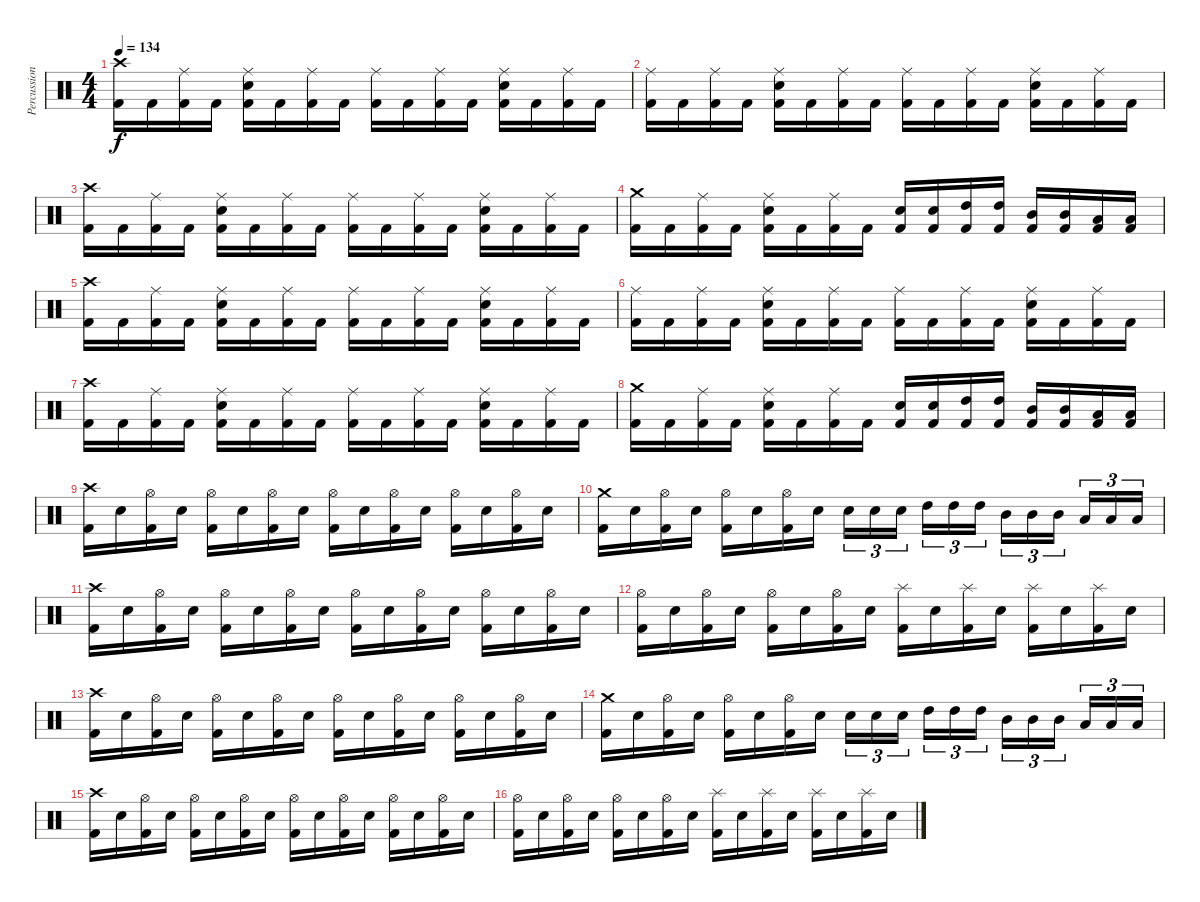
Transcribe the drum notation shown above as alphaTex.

\track ("Percussion" "Percussion") {instrument percussion}
\staff {score}
\articulation defaults
\ts (4 4)
\tempo 134
\clef neutral
\ks c
("Crash high (hit)" "Kick (hit) 2").16{dy f} "Kick (hit) 2".16 ("Ride (middle)" "Kick (hit) 2").16 "Kick (hit) 2".16 ("Ride (middle)" "Snare (hit) 2" "Kick (hit) 2").16 "Kick (hit) 2".16 ("Ride (middle)" "Kick (hit) 2").16 "Kick (hit) 2".16 ("Ride (middle)" "Kick (hit) 2").16 "Kick (hit) 2".16 ("Ride (middle)" "Kick (hit) 2").16 "Kick (hit) 2".16 ("Ride (middle)" "Snare (hit) 2" "Kick (hit) 2").16 "Kick (hit) 2".16 ("Ride (middle)" "Kick (hit) 2").16 "Kick (hit) 2".16 |
("Ride (middle)" "Kick (hit) 2").16 "Kick (hit) 2".16 ("Ride (middle)" "Kick (hit) 2").16 "Kick (hit) 2".16 ("Ride (middle)" "Snare (hit) 2" "Kick (hit) 2").16 "Kick (hit) 2".16 ("Ride (middle)" "Kick (hit) 2").16 "Kick (hit) 2".16 ("Ride (middle)" "Kick (hit) 2").16 "Kick (hit) 2".16 ("Ride (middle)" "Kick (hit) 2").16 "Kick (hit) 2".16 ("Ride (middle)" "Snare (hit) 2" "Kick (hit) 2").16 "Kick (hit) 2".16 ("Ride (middle)" "Kick (hit) 2").16 "Kick (hit) 2".16 |
("Crash high (hit)" "Kick (hit) 2").16 "Kick (hit) 2".16 ("Ride (middle)" "Kick (hit) 2").16 "Kick (hit) 2".16 ("Ride (middle)" "Snare (hit) 2" "Kick (hit) 2").16 "Kick (hit) 2".16 ("Ride (middle)" "Kick (hit) 2").16 "Kick (hit) 2".16 ("Ride (middle)" "Kick (hit) 2").16 "Kick (hit) 2".16 ("Ride (middle)" "Kick (hit) 2").16 "Kick (hit) 2".16 ("Ride (middle)" "Snare (hit) 2" "Kick (hit) 2").16 "Kick (hit) 2".16 ("Ride (middle)" "Kick (hit) 2").16 "Kick (hit) 2".16 |
("Crash medium (hit)" "Kick (hit) 2").16 "Kick (hit) 2".16 ("Ride (middle)" "Kick (hit) 2").16 "Kick (hit) 2".16 ("Ride (middle)" "Snare (hit) 2" "Kick (hit) 2").16 "Kick (hit) 2".16 ("Ride (middle)" "Kick (hit) 2").16 "Kick (hit) 2".16 ("Snare (hit) 2" "Kick (hit) 2").16 ("Snare (hit) 2" "Kick (hit) 2").16 ("High Tom (hit)" "Kick (hit) 2").16 ("High Tom (hit)" "Kick (hit) 2").16 ("Mid Tom (hit)" "Kick (hit) 2").16 ("Mid Tom (hit)" "Kick (hit) 2").16 ("Low Tom (hit)" "Kick (hit) 2").16 ("Low Tom (hit)" "Kick (hit) 2").16 |
("Crash high (hit)" "Kick (hit) 2").16 "Kick (hit) 2".16 ("Ride (middle)" "Kick (hit) 2").16 "Kick (hit) 2".16 ("Ride (middle)" "Snare (hit) 2" "Kick (hit) 2").16 "Kick (hit) 2".16 ("Ride (middle)" "Kick (hit) 2").16 "Kick (hit) 2".16 ("Ride (middle)" "Kick (hit) 2").16 "Kick (hit) 2".16 ("Ride (middle)" "Kick (hit) 2").16 "Kick (hit) 2".16 ("Ride (middle)" "Snare (hit) 2" "Kick (hit) 2").16 "Kick (hit) 2".16 ("Ride (middle)" "Kick (hit) 2").16 "Kick (hit) 2".16 |
("Ride (middle)" "Kick (hit) 2").16 "Kick (hit) 2".16 ("Ride (middle)" "Kick (hit) 2").16 "Kick (hit) 2".16 ("Ride (middle)" "Snare (hit) 2" "Kick (hit) 2").16 "Kick (hit) 2".16 ("Ride (middle)" "Kick (hit) 2").16 "Kick (hit) 2".16 ("Ride (middle)" "Kick (hit) 2").16 "Kick (hit) 2".16 ("Ride (middle)" "Kick (hit) 2").16 "Kick (hit) 2".16 ("Ride (middle)" "Snare (hit) 2" "Kick (hit) 2").16 "Kick (hit) 2".16 ("Ride (middle)" "Kick (hit) 2").16 "Kick (hit) 2".16 |
("Crash high (hit)" "Kick (hit) 2").16 "Kick (hit) 2".16 ("Ride (middle)" "Kick (hit) 2").16 "Kick (hit) 2".16 ("Ride (middle)" "Snare (hit) 2" "Kick (hit) 2").16 "Kick (hit) 2".16 ("Ride (middle)" "Kick (hit) 2").16 "Kick (hit) 2".16 ("Ride (middle)" "Kick (hit) 2").16 "Kick (hit) 2".16 ("Ride (middle)" "Kick (hit) 2").16 "Kick (hit) 2".16 ("Ride (middle)" "Snare (hit) 2" "Kick (hit) 2").16 "Kick (hit) 2".16 ("Ride (middle)" "Kick (hit) 2").16 "Kick (hit) 2".16 |
("Crash medium (hit)" "Kick (hit) 2").16 "Kick (hit) 2".16 ("Ride (middle)" "Kick (hit) 2").16 "Kick (hit) 2".16 ("Ride (middle)" "Snare (hit) 2" "Kick (hit) 2").16 "Kick (hit) 2".16 ("Ride (middle)" "Kick (hit) 2").16 "Kick (hit) 2".16 ("Snare (hit) 2" "Kick (hit) 2").16 ("Snare (hit) 2" "Kick (hit) 2").16 ("High Tom (hit)" "Kick (hit) 2").16 ("High Tom (hit)" "Kick (hit) 2").16 ("Mid Tom (hit)" "Kick (hit) 2").16 ("Mid Tom (hit)" "Kick (hit) 2").16 ("Low Tom (hit)" "Kick (hit) 2").16 ("Low Tom (hit)" "Kick (hit) 2").16 |
("Crash high (hit)" "Kick (hit) 2").16 "Snare (hit) 2".16 ("Hi-Hat (open)" "Kick (hit) 2").16 "Snare (hit) 2".16 ("Hi-Hat (open)" "Kick (hit) 2").16 "Snare (hit) 2".16 ("Hi-Hat (open)" "Kick (hit) 2").16 "Snare (hit) 2".16 ("Hi-Hat (open)" "Kick (hit) 2").16 "Snare (hit) 2".16 ("Hi-Hat (open)" "Kick (hit) 2").16 "Snare (hit) 2".16 ("Hi-Hat (open)" "Kick (hit) 2").16 "Snare (hit) 2".16 ("Hi-Hat (open)" "Kick (hit) 2").16 "Snare (hit) 2".16 |
("Crash medium (hit)" "Kick (hit) 2").16 "Snare (hit) 2".16 ("Hi-Hat (open)" "Kick (hit) 2").16 "Snare (hit) 2".16 ("Hi-Hat (open)" "Kick (hit) 2").16 "Snare (hit) 2".16 ("Hi-Hat (open)" "Kick (hit) 2").16 "Snare (hit) 2".16 "Snare (hit) 2".16{tu (3 2)} "Snare (hit) 2".16{tu (3 2)} "Snare (hit) 2".16{tu (3 2)} "High Tom (hit)".16{tu (3 2)} "High Tom (hit)".16{tu (3 2)} "High Tom (hit)".16{tu (3 2)} "Mid Tom (hit)".16{tu (3 2)} "Mid Tom (hit)".16{tu (3 2)} "Mid Tom (hit)".16{tu (3 2)} "Low Tom (hit)".16{tu (3 2)} "Low Tom (hit)".16{tu (3 2)} "Low Tom (hit)".16{tu (3 2)} |
("Crash high (hit)" "Kick (hit) 2").16 "Snare (hit) 2".16 ("Hi-Hat (open)" "Kick (hit) 2").16 "Snare (hit) 2".16 ("Hi-Hat (open)" "Kick (hit) 2").16 "Snare (hit) 2".16 ("Hi-Hat (open)" "Kick (hit) 2").16 "Snare (hit) 2".16 ("Hi-Hat (open)" "Kick (hit) 2").16 "Snare (hit) 2".16 ("Hi-Hat (open)" "Kick (hit) 2").16 "Snare (hit) 2".16 ("Hi-Hat (open)" "Kick (hit) 2").16 "Snare (hit) 2".16 ("Hi-Hat (open)" "Kick (hit) 2").16 "Snare (hit) 2".16 |
("Hi-Hat (open)" "Kick (hit) 2").16 "Snare (hit) 2".16 ("Hi-Hat (open)" "Kick (hit) 2").16 "Snare (hit) 2".16 ("Hi-Hat (open)" "Kick (hit) 2").16 "Snare (hit) 2".16 ("Hi-Hat (open)" "Kick (hit) 2").16 "Snare (hit) 2".16 ("Splash (hit)" "Kick (hit) 2").16 "Snare (hit) 2".16 ("Splash (hit)" "Kick (hit) 2").16 "Snare (hit) 2".16 ("Splash (hit)" "Kick (hit) 2").16 "Snare (hit) 2".16 ("Splash (hit)" "Kick (hit) 2").16 "Snare (hit) 2".16 |
("Crash high (hit)" "Kick (hit) 2").16 "Snare (hit) 2".16 ("Hi-Hat (open)" "Kick (hit) 2").16 "Snare (hit) 2".16 ("Hi-Hat (open)" "Kick (hit) 2").16 "Snare (hit) 2".16 ("Hi-Hat (open)" "Kick (hit) 2").16 "Snare (hit) 2".16 ("Hi-Hat (open)" "Kick (hit) 2").16 "Snare (hit) 2".16 ("Hi-Hat (open)" "Kick (hit) 2").16 "Snare (hit) 2".16 ("Hi-Hat (open)" "Kick (hit) 2").16 "Snare (hit) 2".16 ("Hi-Hat (open)" "Kick (hit) 2").16 "Snare (hit) 2".16 |
("Crash medium (hit)" "Kick (hit) 2").16 "Snare (hit) 2".16 ("Hi-Hat (open)" "Kick (hit) 2").16 "Snare (hit) 2".16 ("Hi-Hat (open)" "Kick (hit) 2").16 "Snare (hit) 2".16 ("Hi-Hat (open)" "Kick (hit) 2").16 "Snare (hit) 2".16 "Snare (hit) 2".16{tu (3 2)} "Snare (hit) 2".16{tu (3 2)} "Snare (hit) 2".16{tu (3 2)} "High Tom (hit)".16{tu (3 2)} "High Tom (hit)".16{tu (3 2)} "High Tom (hit)".16{tu (3 2)} "Mid Tom (hit)".16{tu (3 2)} "Mid Tom (hit)".16{tu (3 2)} "Mid Tom (hit)".16{tu (3 2)} "Low Tom (hit)".16{tu (3 2)} "Low Tom (hit)".16{tu (3 2)} "Low Tom (hit)".16{tu (3 2)} |
("Crash high (hit)" "Kick (hit) 2").16 "Snare (hit) 2".16 ("Hi-Hat (open)" "Kick (hit) 2").16 "Snare (hit) 2".16 ("Hi-Hat (open)" "Kick (hit) 2").16 "Snare (hit) 2".16 ("Hi-Hat (open)" "Kick (hit) 2").16 "Snare (hit) 2".16 ("Hi-Hat (open)" "Kick (hit) 2").16 "Snare (hit) 2".16 ("Hi-Hat (open)" "Kick (hit) 2").16 "Snare (hit) 2".16 ("Hi-Hat (open)" "Kick (hit) 2").16 "Snare (hit) 2".16 ("Hi-Hat (open)" "Kick (hit) 2").16 "Snare (hit) 2".16 |
("Hi-Hat (open)" "Kick (hit) 2").16 "Snare (hit) 2".16 ("Hi-Hat (open)" "Kick (hit) 2").16 "Snare (hit) 2".16 ("Hi-Hat (open)" "Kick (hit) 2").16 "Snare (hit) 2".16 ("Hi-Hat (open)" "Kick (hit) 2").16 "Snare (hit) 2".16 ("Splash (hit)" "Kick (hit) 2").16 "Snare (hit) 2".16 ("Splash (hit)" "Kick (hit) 2").16 "Snare (hit) 2".16 ("Splash (hit)" "Kick (hit) 2").16 "Snare (hit) 2".16 ("Splash (hit)" "Kick (hit) 2").16 "Snare (hit) 2".16
